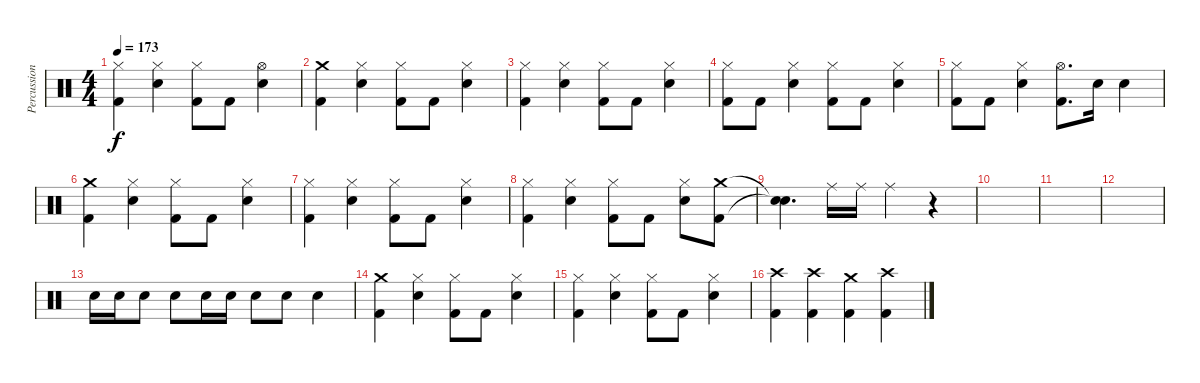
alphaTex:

\track ("Percussion" "Percussion") {instrument percussion}
\staff {score}
\articulation defaults
\ts (4 4)
\tempo 173
\clef neutral
\ks c
("Hi-Hat (closed)" "Kick (hit) 2").4{dy f} ("Hi-Hat (closed)" "Electric Snare (hit)").4 ("Hi-Hat (closed)" "Kick (hit) 2").8 "Kick (hit) 2".8 ("Hi-Hat (open)" "Electric Snare (hit)").4 |
("Crash medium (hit)" "Kick (hit) 2").4 ("Hi-Hat (closed)" "Electric Snare (hit)").4 ("Hi-Hat (closed)" "Kick (hit) 2").8 "Kick (hit) 2".8 ("Hi-Hat (closed)" "Electric Snare (hit)").4 |
("Hi-Hat (closed)" "Kick (hit) 2").4 ("Hi-Hat (closed)" "Electric Snare (hit)").4 ("Hi-Hat (closed)" "Kick (hit) 2").8 "Kick (hit) 2".8 ("Hi-Hat (closed)" "Electric Snare (hit)").4 |
("Hi-Hat (closed)" "Kick (hit) 2").8 "Kick (hit) 2".8 ("Hi-Hat (closed)" "Electric Snare (hit)").4 ("Hi-Hat (closed)" "Kick (hit) 2").8 "Kick (hit) 2".8 ("Hi-Hat (closed)" "Electric Snare (hit)").4 |
("Hi-Hat (closed)" "Kick (hit) 2").8 "Kick (hit) 2".8 ("Hi-Hat (closed)" "Electric Snare (hit)").4 ("Hi-Hat (open)" "Kick (hit) 2").8{d} "Electric Snare (hit)".16 "Electric Snare (hit)".4 |
("Crash medium (hit)" "Kick (hit) 2").4 ("Hi-Hat (closed)" "Electric Snare (hit)").4 ("Hi-Hat (closed)" "Kick (hit) 2").8 "Kick (hit) 2".8 ("Hi-Hat (closed)" "Electric Snare (hit)").4 |
("Hi-Hat (closed)" "Kick (hit) 2").4 ("Hi-Hat (closed)" "Electric Snare (hit)").4 ("Hi-Hat (closed)" "Kick (hit) 2").8 "Kick (hit) 2".8 ("Hi-Hat (closed)" "Electric Snare (hit)").4 |
("Hi-Hat (closed)" "Kick (hit) 2").4 ("Hi-Hat (closed)" "Electric Snare (hit)").4 ("Hi-Hat (closed)" "Kick (hit) 2").8 "Kick (hit) 2".8 ("Hi-Hat (closed)" "Electric Snare (hit)").8 ("Crash medium (hit)" "Kick (hit) 2").8 |
("Snare (hit)"{t} "Snare (hit)"{t}).4{d} "Ride (middle)".16 "Ride (middle)".16 "Ride (middle)".4 r.4 |
|
|
|
"Electric Snare (hit)".16 "Electric Snare (hit)".16 "Electric Snare (hit)".8 "Electric Snare (hit)".8 "Electric Snare (hit)".16 "Electric Snare (hit)".16 "Electric Snare (hit)".8 "Electric Snare (hit)".8 "Electric Snare (hit)".4 |
("Crash medium (hit)" "Kick (hit) 2").4 ("Hi-Hat (closed)" "Electric Snare (hit)").4 ("Hi-Hat (closed)" "Kick (hit) 2").8 "Kick (hit) 2".8 ("Hi-Hat (closed)" "Electric Snare (hit)").4 |
("Hi-Hat (closed)" "Kick (hit) 2").4 ("Hi-Hat (closed)" "Electric Snare (hit)").4 ("Hi-Hat (closed)" "Kick (hit) 2").8 "Kick (hit) 2".8 ("Hi-Hat (closed)" "Electric Snare (hit)").4 |
("Crash high (hit)" "Kick (hit) 2").4 ("Crash high (hit)" "Kick (hit) 2").4 ("Crash medium (hit)" "Kick (hit) 2").4 ("Crash high (hit)" "Kick (hit) 2").4
